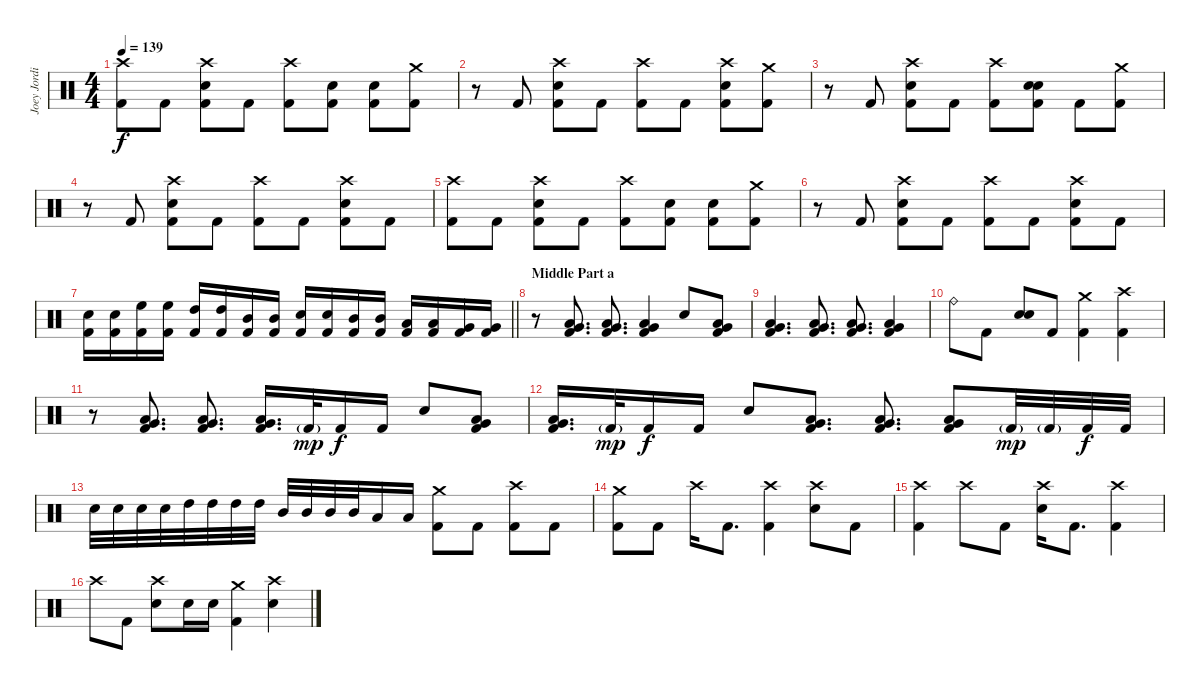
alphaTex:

\track ("Joey Jordison" "Joey Jordi") {instrument percussion}
\staff {score}
\articulation defaults
\ts (4 4)
\tempo 139
\clef neutral
\ks c
("Crash high (hit)" "Kick (hit) 2").8{dy f} "Kick (hit) 2".8 ("Crash high (hit)" "Electric Snare (hit)" "Kick (hit) 2").8 "Kick (hit) 2".8 ("Crash high (hit)" "Kick (hit) 2").8 ("Electric Snare (hit)" "Kick (hit) 2").8 ("Electric Snare (hit)" "Kick (hit) 2").8 ("Crash medium (hit)" "Kick (hit) 2").8 |
r.8 "Kick (hit) 2".8 ("Crash high (hit)" "Electric Snare (hit)" "Kick (hit) 2").8 "Kick (hit) 2".8 ("Crash high (hit)" "Kick (hit) 2").8 "Kick (hit) 2".8 ("Crash high (hit)" "Electric Snare (hit)" "Kick (hit) 2").8 ("Crash medium (hit)" "Kick (hit) 2").8 |
r.8 "Kick (hit) 2".8 ("Crash high (hit)" "Electric Snare (hit)" "Kick (hit) 2").8 "Kick (hit) 2".8 ("Crash high (hit)" "Kick (hit) 2").8 ("Electric Snare (hit)" "Electric Snare (hit)" "Kick (hit) 2").8{bd 240} "Kick (hit) 2".8 ("Crash medium (hit)" "Kick (hit) 2").8 |
r.8 "Kick (hit) 2".8 ("Crash high (hit)" "Electric Snare (hit)" "Kick (hit) 2").8 "Kick (hit) 2".8 ("Crash high (hit)" "Kick (hit) 2").8 "Kick (hit) 2".8 ("Crash high (hit)" "Electric Snare (hit)" "Kick (hit) 2").8 "Kick (hit) 2".8 |
("Crash high (hit)" "Kick (hit) 2").8 "Kick (hit) 2".8 ("Crash high (hit)" "Electric Snare (hit)" "Kick (hit) 2").8 "Kick (hit) 2".8 ("Crash high (hit)" "Kick (hit) 2").8 ("Electric Snare (hit)" "Kick (hit) 2").8 ("Electric Snare (hit)" "Kick (hit) 2").8 ("Crash medium (hit)" "Kick (hit) 2").8 |
r.8 "Kick (hit) 2".8 ("Crash high (hit)" "Electric Snare (hit)" "Kick (hit) 2").8 "Kick (hit) 2".8 ("Crash high (hit)" "Kick (hit) 2").8 "Kick (hit) 2".8 ("Crash high (hit)" "Electric Snare (hit)" "Kick (hit) 2").8 "Kick (hit) 2".8 |
\barLineRight lightlight
("Electric Snare (hit)" "Kick (hit) 2").16 ("Electric Snare (hit)" "Kick (hit) 2").16 ("High Floor Tom (hit)" "Kick (hit) 2").16 ("High Floor Tom (hit)" "Kick (hit) 2").16 ("High Tom (hit)" "Kick (hit) 2").16 ("High Tom (hit)" "Kick (hit) 2").16 ("Mid Tom (hit)" "Kick (hit) 2").16 ("Mid Tom (hit)" "Kick (hit) 2").16 ("Electric Snare (hit)" "Kick (hit) 2").16 ("Electric Snare (hit)" "Kick (hit) 2").16 ("Mid Tom (hit)" "Kick (hit) 2").16 ("Mid Tom (hit)" "Kick (hit) 2").16 ("Low Tom (hit)" "Kick (hit) 2").16 ("Low Tom (hit)" "Kick (hit) 2").16 ("Very Low Tom (hit)" "Kick (hit) 2").16 ("Very Low Tom (hit)" "Kick (hit) 2").16 |
\section ("" "Middle Part a")
r.8 ("Very Low Tom (hit)" "Low Floor Tom (hit)" "Kick (hit) 2").8{d} ("Very Low Tom (hit)" "Low Floor Tom (hit)" "Kick (hit) 2").8{d} ("Very Low Tom (hit)" "Low Floor Tom (hit)" "Kick (hit) 2").4 "Electric Snare (hit)".8 ("Very Low Tom (hit)" "Low Floor Tom (hit)" "Kick (hit) 2").8 |
("Very Low Tom (hit)" "Low Floor Tom (hit)" "Kick (hit) 2").4{d} ("Very Low Tom (hit)" "Low Floor Tom (hit)" "Kick (hit) 2").8{d} ("Very Low Tom (hit)" "Low Floor Tom (hit)" "Kick (hit) 2").8{d} ("Very Low Tom (hit)" "Low Floor Tom (hit)" "Kick (hit) 2").4 |
"Ride (bell)".8 "Kick (hit) 2".8 ("Electric Snare (hit)" "Electric Snare (hit)").8{bd 240} "Kick (hit) 2".8 ("Crash medium (hit)" "Kick (hit) 2").4 ("Crash high (hit)" "Kick (hit) 2").4 |
r.8 ("Very Low Tom (hit)" "Low Floor Tom (hit)" "Kick (hit) 2").8{d} ("Very Low Tom (hit)" "Low Floor Tom (hit)" "Kick (hit) 2").8{d} ("Very Low Tom (hit)" "Low Floor Tom (hit)" "Kick (hit) 2").16{d} "Kick (hit) 2"{g}.32{dy mp} "Kick (hit) 2".16{dy f} "Kick (hit) 2".16 "Electric Snare (hit)".8 ("Very Low Tom (hit)" "Low Floor Tom (hit)" "Kick (hit) 2").8 |
("Very Low Tom (hit)" "Low Floor Tom (hit)" "Kick (hit) 2").16{d} "Kick (hit) 2"{g}.32{dy mp} "Kick (hit) 2".16{dy f} "Kick (hit) 2".16 "Electric Snare (hit)".8 ("Very Low Tom (hit)" "Low Floor Tom (hit)" "Kick (hit) 2").8{d} ("Very Low Tom (hit)" "Low Floor Tom (hit)" "Kick (hit) 2").8{d} ("Very Low Tom (hit)" "Low Floor Tom (hit)" "Kick (hit) 2").8 "Kick (hit) 2"{g}.32{dy mp} "Kick (hit) 2"{g}.32 "Kick (hit) 2".32{dy f} "Kick (hit) 2".32 |
"Electric Snare (hit)".32 "Electric Snare (hit)".32 "Electric Snare (hit)".32 "Electric Snare (hit)".32 "High Tom (hit)".32 "High Tom (hit)".32 "High Tom (hit)".32 "High Tom (hit)".32 "Mid Tom (hit)".32 "Mid Tom (hit)".32 "Mid Tom (hit)".32 "Mid Tom (hit)".32 "Low Tom (hit)".16 "Low Tom (hit)".16 ("Crash medium (hit)" "Kick (hit) 2").8 "Kick (hit) 2".8 ("Crash high (hit)" "Kick (hit) 2").8 "Kick (hit) 2".8 |
("Crash medium (hit)" "Kick (hit) 2").8 "Kick (hit) 2".8 "Crash high (hit)".16 "Kick (hit) 2".8{d} ("Crash high (hit)" "Kick (hit) 2").4 ("Crash high (hit)" "Electric Snare (hit)").8 "Kick (hit) 2".8 |
("Crash high (hit)" "Kick (hit) 2").4 "Crash high (hit)".8 "Kick (hit) 2".8 ("Crash high (hit)" "Electric Snare (hit)").16 "Kick (hit) 2".8{d} ("Crash high (hit)" "Kick (hit) 2").4 |
"Crash high (hit)".8 "Kick (hit) 2".8 ("Crash high (hit)" "Electric Snare (hit)").8 "Electric Snare (hit)".16 "Electric Snare (hit)".16 ("Crash medium (hit)" "Kick (hit) 2").4 ("Crash high (hit)" "Electric Snare (hit)").4
